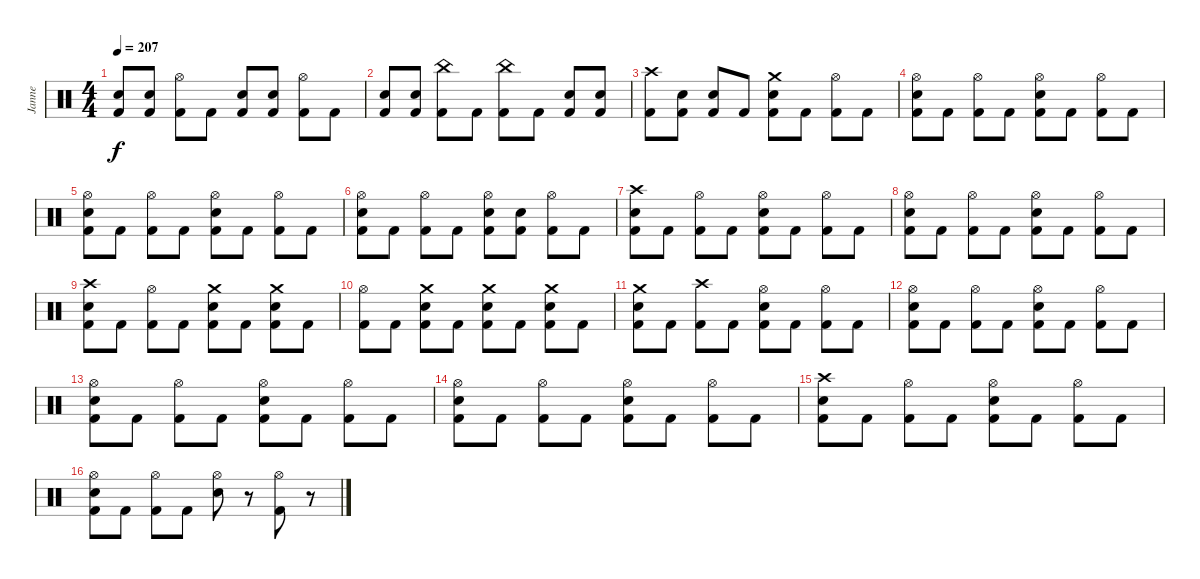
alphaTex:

\track ("Janne" "Janne") {instrument percussion}
\staff {score}
\articulation defaults
\ts (4 4)
\tempo 207
\clef neutral
\ks c
("Electric Snare (hit)" "Kick (hit) 2").8{dy f} ("Electric Snare (hit)" "Kick (hit) 2").8 ("Hi-Hat (open)" "Kick (hit) 2").8 "Kick (hit) 2".8 ("Electric Snare (hit)" "Kick (hit) 2").8 ("Electric Snare (hit)" "Kick (hit) 2").8 ("Hi-Hat (open)" "Kick (hit) 2").8 "Kick (hit) 2".8 |
("Electric Snare (hit)" "Kick (hit) 2").8 ("Electric Snare (hit)" "Kick (hit) 2").8 ("China (hit)" "Kick (hit) 2").8 "Kick (hit) 2".8 ("China (hit)" "Kick (hit) 2").8 "Kick (hit) 2".8 ("Electric Snare (hit)" "Kick (hit) 2").8 ("Electric Snare (hit)" "Kick (hit) 2").8 |
("Crash high (hit)" "Kick (hit) 2").8 ("Electric Snare (hit)" "Kick (hit) 2").8 ("Electric Snare (hit)" "Kick (hit) 2").8 "Kick (hit) 2".8 ("Crash medium (hit)" "Electric Snare (hit)" "Kick (hit) 2").8 "Kick (hit) 2".8 ("Hi-Hat (open)" "Kick (hit) 2").8 "Kick (hit) 2".8 |
("Hi-Hat (open)" "Electric Snare (hit)" "Kick (hit) 2").8 "Kick (hit) 2".8 ("Hi-Hat (open)" "Kick (hit) 2").8 "Kick (hit) 2".8 ("Hi-Hat (open)" "Electric Snare (hit)" "Kick (hit) 2").8 "Kick (hit) 2".8 ("Hi-Hat (open)" "Kick (hit) 2").8 "Kick (hit) 2".8 |
("Hi-Hat (open)" "Electric Snare (hit)" "Kick (hit) 2").8 "Kick (hit) 2".8 ("Hi-Hat (open)" "Kick (hit) 2").8 "Kick (hit) 2".8 ("Hi-Hat (open)" "Electric Snare (hit)" "Kick (hit) 2").8 "Kick (hit) 2".8 ("Hi-Hat (open)" "Kick (hit) 2").8 "Kick (hit) 2".8 |
("Hi-Hat (open)" "Electric Snare (hit)" "Kick (hit) 2").8 "Kick (hit) 2".8 ("Hi-Hat (open)" "Kick (hit) 2").8 "Kick (hit) 2".8 ("Hi-Hat (open)" "Electric Snare (hit)" "Kick (hit) 2").8 ("Electric Snare (hit)" "Kick (hit) 2").8 ("Hi-Hat (open)" "Kick (hit) 2").8 "Kick (hit) 2".8 |
("Crash high (hit)" "Electric Snare (hit)" "Kick (hit) 2").8 "Kick (hit) 2".8 ("Hi-Hat (open)" "Kick (hit) 2").8 "Kick (hit) 2".8 ("Hi-Hat (open)" "Electric Snare (hit)" "Kick (hit) 2").8 "Kick (hit) 2".8 ("Hi-Hat (open)" "Kick (hit) 2").8 "Kick (hit) 2".8 |
("Hi-Hat (open)" "Electric Snare (hit)" "Kick (hit) 2").8 "Kick (hit) 2".8 ("Hi-Hat (open)" "Kick (hit) 2").8 "Kick (hit) 2".8 ("Hi-Hat (open)" "Electric Snare (hit)" "Kick (hit) 2").8 "Kick (hit) 2".8 ("Hi-Hat (open)" "Kick (hit) 2").8 "Kick (hit) 2".8 |
("Crash high (hit)" "Electric Snare (hit)" "Kick (hit) 2").8 "Kick (hit) 2".8 ("Hi-Hat (open)" "Kick (hit) 2").8 "Kick (hit) 2".8 ("Crash medium (hit)" "Electric Snare (hit)" "Kick (hit) 2").8 "Kick (hit) 2".8 ("Crash medium (hit)" "Electric Snare (hit)" "Kick (hit) 2").8 "Kick (hit) 2".8 |
("Hi-Hat (open)" "Kick (hit) 2").8 "Kick (hit) 2".8 ("Crash medium (hit)" "Electric Snare (hit)" "Kick (hit) 2").8 "Kick (hit) 2".8 ("Crash medium (hit)" "Electric Snare (hit)" "Kick (hit) 2").8 "Kick (hit) 2".8 ("Crash medium (hit)" "Electric Snare (hit)" "Kick (hit) 2").8 "Kick (hit) 2".8 |
("Crash medium (hit)" "Electric Snare (hit)" "Kick (hit) 2").8 "Kick (hit) 2".8 ("Crash high (hit)" "Kick (hit) 2").8 "Kick (hit) 2".8 ("Hi-Hat (open)" "Electric Snare (hit)" "Kick (hit) 2").8 "Kick (hit) 2".8 ("Hi-Hat (open)" "Kick (hit) 2").8 "Kick (hit) 2".8 |
("Hi-Hat (open)" "Electric Snare (hit)" "Kick (hit) 2").8 "Kick (hit) 2".8 ("Hi-Hat (open)" "Kick (hit) 2").8 "Kick (hit) 2".8 ("Hi-Hat (open)" "Electric Snare (hit)" "Kick (hit) 2").8 "Kick (hit) 2".8 ("Hi-Hat (open)" "Kick (hit) 2").8 "Kick (hit) 2".8 |
("Hi-Hat (open)" "Electric Snare (hit)" "Kick (hit) 2").8 "Kick (hit) 2".8 ("Hi-Hat (open)" "Kick (hit) 2").8 "Kick (hit) 2".8 ("Hi-Hat (open)" "Electric Snare (hit)" "Kick (hit) 2").8 "Kick (hit) 2".8 ("Hi-Hat (open)" "Kick (hit) 2").8 "Kick (hit) 2".8 |
("Hi-Hat (open)" "Electric Snare (hit)" "Kick (hit) 2").8 "Kick (hit) 2".8 ("Hi-Hat (open)" "Kick (hit) 2").8 "Kick (hit) 2".8 ("Hi-Hat (open)" "Electric Snare (hit)" "Kick (hit) 2").8 "Kick (hit) 2".8 ("Hi-Hat (open)" "Kick (hit) 2").8 "Kick (hit) 2".8 |
("Crash high (hit)" "Electric Snare (hit)" "Kick (hit) 2").8 "Kick (hit) 2".8 ("Hi-Hat (open)" "Kick (hit) 2").8 "Kick (hit) 2".8 ("Hi-Hat (open)" "Electric Snare (hit)" "Kick (hit) 2").8 "Kick (hit) 2".8 ("Hi-Hat (open)" "Kick (hit) 2").8 "Kick (hit) 2".8 |
("Hi-Hat (open)" "Electric Snare (hit)" "Kick (hit) 2").8 "Kick (hit) 2".8 ("Hi-Hat (open)" "Kick (hit) 2").8 "Kick (hit) 2".8 ("Hi-Hat (open)" "Electric Snare (hit)").8 r.8 ("Hi-Hat (open)" "Kick (hit) 2").8 r.8
